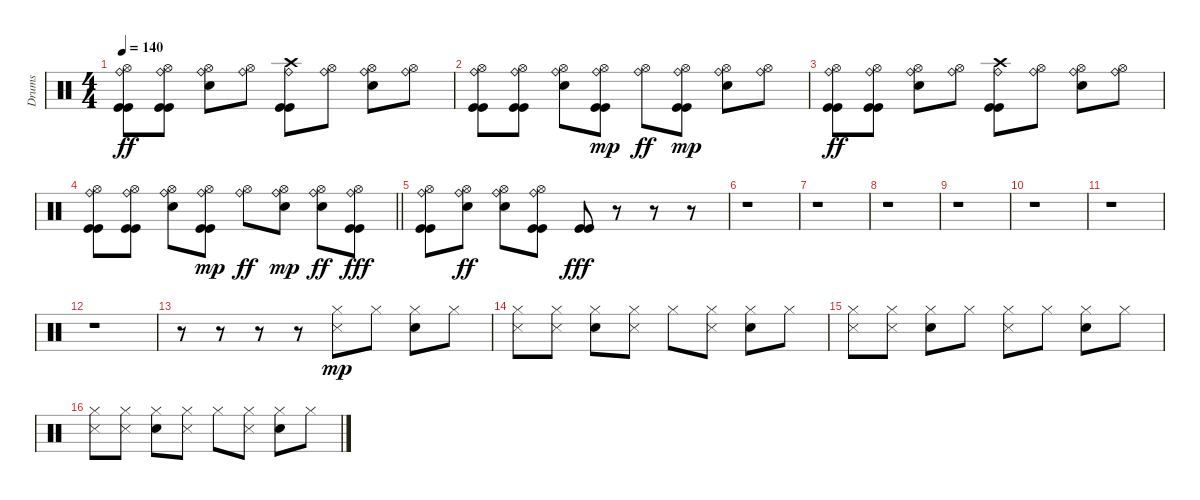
\track ("Drums" "Drums") {instrument percussion}
\staff {score}
\articulation defaults
\ts (4 4)
\tempo 140
\clef neutral
\ks c
("Kick (hit)" "Kick (hit)" "Hi-Hat (open)" "Ride (bell)").8{dy ff} ("Kick (hit)" "Kick (hit)" "Hi-Hat (open)" "Ride (bell)").8 ("Electric Snare (hit)" "Hi-Hat (open)" "Ride (bell)").8 ("Hi-Hat (open)" "Ride (bell)").8 ("Kick (hit)" "Ride (bell)" "Kick (hit)" "Crash high (hit)").8 ("Hi-Hat (open)" "Ride (bell)").8 ("Electric Snare (hit)" "Hi-Hat (open)" "Ride (bell)").8 ("Hi-Hat (open)" "Ride (bell)").8 |
("Kick (hit)" "Kick (hit)" "Hi-Hat (open)" "Ride (bell)").8 ("Kick (hit)" "Kick (hit)" "Hi-Hat (open)" "Ride (bell)").8 ("Electric Snare (hit)" "Hi-Hat (open)" "Ride (bell)").8 ("Kick (hit)" "Ride (bell)" "Kick (hit)" "Hi-Hat (open)").8{dy mp} ("Hi-Hat (open)" "Ride (bell)").8{dy ff} ("Kick (hit)" "Ride (bell)" "Kick (hit)" "Hi-Hat (open)").8{dy mp} ("Electric Snare (hit)" "Ride (bell)" "Hi-Hat (open)").8 ("Ride (bell)" "Hi-Hat (open)").8 |
("Kick (hit)" "Kick (hit)" "Hi-Hat (open)" "Ride (bell)").8{dy ff} ("Kick (hit)" "Kick (hit)" "Hi-Hat (open)" "Ride (bell)").8 ("Electric Snare (hit)" "Hi-Hat (open)" "Ride (bell)").8 ("Hi-Hat (open)" "Ride (bell)").8 ("Kick (hit)" "Ride (bell)" "Kick (hit)" "Crash high (hit)").8 ("Hi-Hat (open)" "Ride (bell)").8 ("Electric Snare (hit)" "Hi-Hat (open)" "Ride (bell)").8 ("Hi-Hat (open)" "Ride (bell)").8 |
\barLineRight lightlight
("Kick (hit)" "Kick (hit)" "Hi-Hat (open)" "Ride (bell)").8 ("Kick (hit)" "Kick (hit)" "Hi-Hat (open)" "Ride (bell)").8 ("Electric Snare (hit)" "Hi-Hat (open)" "Ride (bell)").8 ("Kick (hit)" "Ride (bell)" "Kick (hit)" "Hi-Hat (open)").8{dy mp} ("Hi-Hat (open)" "Ride (bell)").8{dy ff} ("Electric Snare (hit)" "Ride (bell)" "Hi-Hat (open)").8{dy mp} ("Electric Snare (hit)" "Hi-Hat (open)" "Ride (bell)").8{dy ff} ("Ride (bell)" "Hi-Hat (open)" "Kick (hit)" "Kick (hit)").8{dy fff} |
("Ride (bell)" "Hi-Hat (open)" "Kick (hit)" "Kick (hit)").8 ("Ride (bell)" "Hi-Hat (open)" "Electric Snare (hit)").8{dy ff} ("Ride (bell)" "Hi-Hat (open)" "Electric Snare (hit)").8 ("Kick (hit)" "Kick (hit)" "Hi-Hat (open)" "Ride (bell)").8 ("Kick (hit)" "Kick (hit)").8{dy fff} r.8 r.8 r.8 |
r.1 |
r.1 |
r.1 |
r.1 |
r.1 |
r.1 |
r.1 |
r.8 r.8 r.8 r.8 ("Hi-Hat (closed)" "Snare (side stick) 3").8{dy mp} "Hi-Hat (closed)".8 ("Hi-Hat (closed)" "Hand Clap (hit)").8 "Hi-Hat (closed)".8 |
("Snare (side stick) 3" "Hi-Hat (closed)").8 ("Snare (side stick) 3" "Hi-Hat (closed)").8 ("Hi-Hat (closed)" "Hand Clap (hit)").8 ("Hi-Hat (closed)" "Snare (side stick) 3").8 "Hi-Hat (closed)".8 ("Hi-Hat (closed)" "Snare (side stick) 3").8 ("Hi-Hat (closed)" "Hand Clap (hit)").8 "Hi-Hat (closed)".8 |
("Snare (side stick) 3" "Hi-Hat (closed)").8 ("Snare (side stick) 3" "Hi-Hat (closed)").8 ("Hi-Hat (closed)" "Hand Clap (hit)").8 "Hi-Hat (closed)".8 ("Hi-Hat (closed)" "Snare (side stick) 3").8 "Hi-Hat (closed)".8 ("Hi-Hat (closed)" "Hand Clap (hit)").8 "Hi-Hat (closed)".8 |
("Snare (side stick) 3" "Hi-Hat (closed)").8 ("Snare (side stick) 3" "Hi-Hat (closed)").8 ("Hi-Hat (closed)" "Hand Clap (hit)").8 ("Hi-Hat (closed)" "Snare (side stick) 3").8 "Hi-Hat (closed)".8 ("Hi-Hat (closed)" "Snare (side stick) 3").8 ("Hi-Hat (closed)" "Hand Clap (hit)").8 "Hi-Hat (closed)".8
